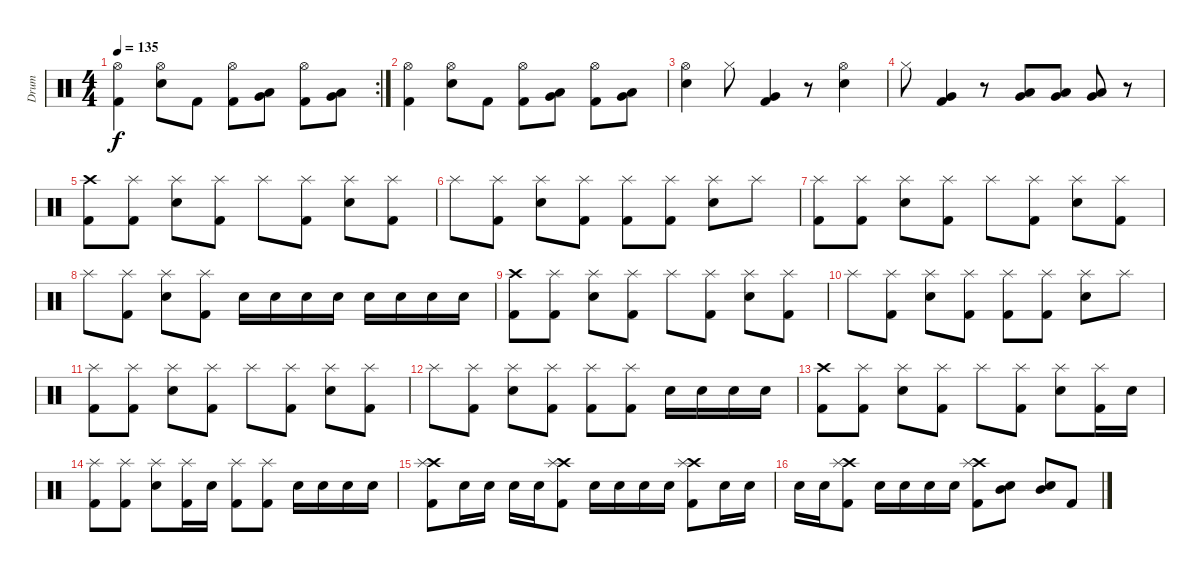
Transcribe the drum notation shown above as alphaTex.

\track ("Drum" "Drum") {instrument percussion}
\staff {score}
\articulation defaults
\rc 2
\ts (4 4)
\tempo 135
\clef neutral
\ks c
("Hi-Hat (open)" "Kick (hit) 2").4{dy f} ("Hi-Hat (open)" "Snare (hit) 2").8 "Kick (hit) 2".8 ("Hi-Hat (open)" "Kick (hit) 2").8 ("Low Tom (hit)" "Very Low Tom (hit)").8 ("Hi-Hat (open)" "Kick (hit) 2").8 ("Low Tom (hit)" "Very Low Tom (hit)").8 |
("Hi-Hat (open)" "Kick (hit) 2").4 ("Hi-Hat (open)" "Snare (hit) 2").8 "Kick (hit) 2".8 ("Hi-Hat (open)" "Kick (hit) 2").8 ("Low Tom (hit)" "Very Low Tom (hit)").8 ("Hi-Hat (open)" "Kick (hit) 2").8 ("Low Tom (hit)" "Very Low Tom (hit)").8 |
("Hi-Hat (open)" "Snare (hit) 2").4 "Hi-Hat (closed)".8 ("Very Low Tom (hit)" "Kick (hit) 2").4 r.8 ("Hi-Hat (open)" "Snare (hit) 2").4 |
"Hi-Hat (closed)".8 ("Very Low Tom (hit)" "Kick (hit) 2").4 r.8 ("Low Tom (hit)" "Very Low Tom (hit)").8 ("Low Tom (hit)" "Very Low Tom (hit)").8 ("Low Tom (hit)" "Very Low Tom (hit)").8 r.8 |
("Crash high (hit)" "Kick (hit) 2").8 ("Splash (hit)" "Kick (hit) 2").8 ("Splash (hit)" "Snare (hit) 2").8 ("Splash (hit)" "Kick (hit) 2").8 "Splash (hit)".8 ("Splash (hit)" "Kick (hit) 2").8 ("Splash (hit)" "Snare (hit) 2").8 ("Splash (hit)" "Kick (hit) 2").8 |
"Splash (hit)".8 ("Splash (hit)" "Kick (hit) 2").8 ("Splash (hit)" "Snare (hit) 2").8 ("Splash (hit)" "Kick (hit) 2").8 ("Splash (hit)" "Kick (hit) 2").8 ("Splash (hit)" "Kick (hit) 2").8 ("Splash (hit)" "Snare (hit) 2").8 "Splash (hit)".8 |
("Splash (hit)" "Kick (hit) 2").8 ("Splash (hit)" "Kick (hit) 2").8 ("Splash (hit)" "Snare (hit) 2").8 ("Splash (hit)" "Kick (hit) 2").8 "Splash (hit)".8 ("Splash (hit)" "Kick (hit) 2").8 ("Splash (hit)" "Snare (hit) 2").8 ("Splash (hit)" "Kick (hit) 2").8 |
"Splash (hit)".8 ("Splash (hit)" "Kick (hit) 2").8 ("Splash (hit)" "Snare (hit) 2").8 ("Splash (hit)" "Kick (hit) 2").8 "Snare (hit) 2".16 "Snare (hit) 2".16 "Snare (hit) 2".16 "Snare (hit) 2".16 "Snare (hit) 2".16 "Snare (hit) 2".16 "Snare (hit) 2".16 "Snare (hit) 2".16 |
("Crash high (hit)" "Kick (hit) 2").8 ("Splash (hit)" "Kick (hit) 2").8 ("Splash (hit)" "Snare (hit) 2").8 ("Splash (hit)" "Kick (hit) 2").8 "Splash (hit)".8 ("Splash (hit)" "Kick (hit) 2").8 ("Splash (hit)" "Snare (hit) 2").8 ("Splash (hit)" "Kick (hit) 2").8 |
"Splash (hit)".8 ("Splash (hit)" "Kick (hit) 2").8 ("Splash (hit)" "Snare (hit) 2").8 ("Splash (hit)" "Kick (hit) 2").8 ("Splash (hit)" "Kick (hit) 2").8 ("Splash (hit)" "Kick (hit) 2").8 ("Splash (hit)" "Snare (hit) 2").8 "Splash (hit)".8 |
("Splash (hit)" "Kick (hit) 2").8 ("Splash (hit)" "Kick (hit) 2").8 ("Splash (hit)" "Snare (hit) 2").8 ("Splash (hit)" "Kick (hit) 2").8 "Splash (hit)".8 ("Splash (hit)" "Kick (hit) 2").8 ("Splash (hit)" "Snare (hit) 2").8 ("Splash (hit)" "Kick (hit) 2").8 |
"Splash (hit)".8 ("Splash (hit)" "Kick (hit) 2").8 ("Splash (hit)" "Snare (hit) 2").8 ("Splash (hit)" "Kick (hit) 2").8 ("Splash (hit)" "Kick (hit) 2").8 ("Splash (hit)" "Kick (hit) 2").8 "Snare (hit) 2".16 "Snare (hit) 2".16 "Snare (hit) 2".16 "Snare (hit) 2".16 |
("Crash high (hit)" "Kick (hit) 2").8 ("Splash (hit)" "Kick (hit) 2").8 ("Splash (hit)" "Snare (hit) 2").8 ("Splash (hit)" "Kick (hit) 2").8 "Splash (hit)".8 ("Splash (hit)" "Kick (hit) 2").8 ("Splash (hit)" "Snare (hit) 2").8 ("Splash (hit)" "Kick (hit) 2").16 "Snare (hit) 2".16 |
("Splash (hit)" "Kick (hit) 2").8 ("Splash (hit)" "Kick (hit) 2").8 ("Splash (hit)" "Snare (hit) 2").8 ("Splash (hit)" "Kick (hit) 2").16 "Snare (hit) 2".16 ("Splash (hit)" "Kick (hit) 2").8 ("Splash (hit)" "Kick (hit) 2").8 "Snare (hit) 2".16 "Snare (hit) 2".16 "Snare (hit) 2".16 "Snare (hit) 2".16 |
("Crash high (hit)" "Splash (hit)" "Kick (hit) 2").8 "Snare (hit) 2".16 "Snare (hit) 2".16 "Snare (hit) 2".16 "Snare (hit) 2".16 ("Crash high (hit)" "Splash (hit)" "Kick (hit) 2").8 "Snare (hit) 2".16 "Snare (hit) 2".16 "Snare (hit) 2".16 "Snare (hit) 2".16 ("Crash high (hit)" "Splash (hit)" "Kick (hit) 2").8 "Snare (hit) 2".16 "Snare (hit) 2".16 |
"Snare (hit) 2".16 "Snare (hit) 2".16 ("Crash high (hit)" "Splash (hit)" "Kick (hit) 2").8 "Snare (hit) 2".16 "Snare (hit) 2".16 "Snare (hit) 2".16 "Snare (hit) 2".16 ("Crash high (hit)" "Splash (hit)" "Kick (hit) 2").8 ("Mid Tom (hit)" "Snare (hit) 2").8 ("Mid Tom (hit)" "Snare (hit) 2").8 "Kick (hit) 2".8
